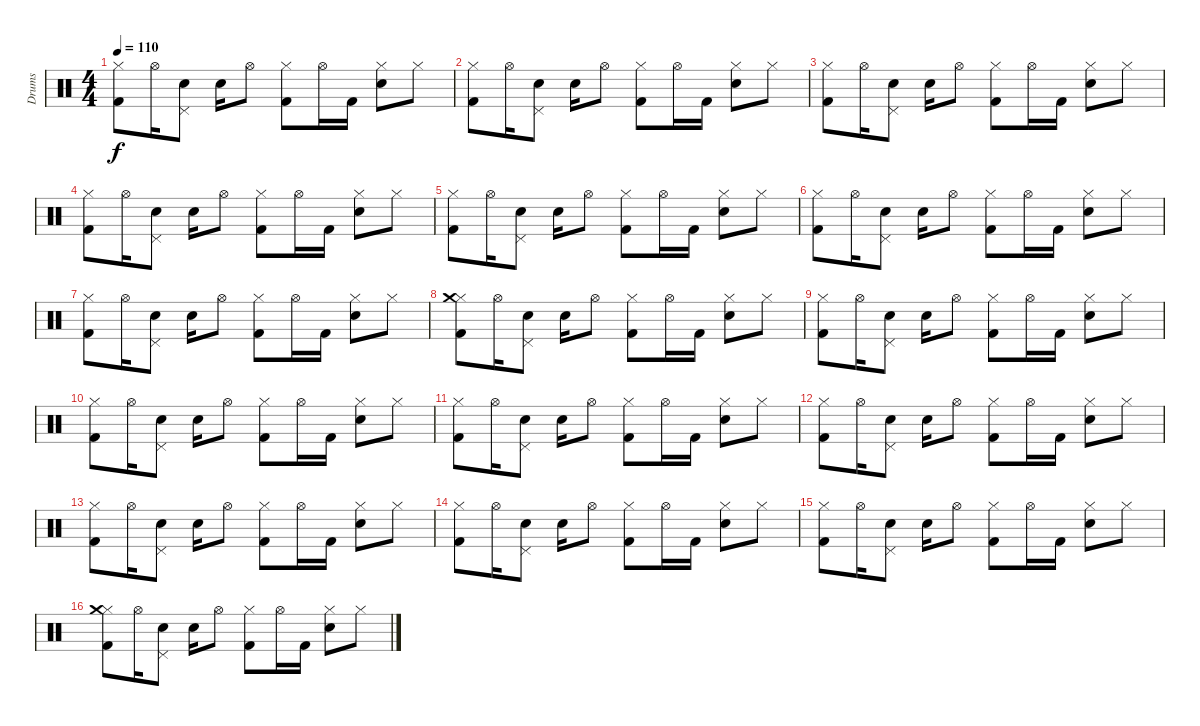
\track ("Drums" "Drums") {instrument percussion}
\staff {score}
\articulation defaults
\ts (4 4)
\tempo 110
\clef neutral
\ks c
("Hi-Hat (closed)" "Kick (hit) 2").8{dy f} "Hi-Hat (open)".16 ("Electric Snare (hit)" "Pedal Hi-Hat (hit)").8 "Electric Snare (hit)".16 "Hi-Hat (open)".8 ("Hi-Hat (closed)" "Kick (hit) 2").8 "Hi-Hat (open)".16 "Kick (hit) 2".16 ("Hi-Hat (closed)" "Electric Snare (hit)").8 "Hi-Hat (closed)".8 |
("Hi-Hat (closed)" "Kick (hit) 2").8 "Hi-Hat (open)".16 ("Electric Snare (hit)" "Pedal Hi-Hat (hit)").8 "Electric Snare (hit)".16 "Hi-Hat (open)".8 ("Hi-Hat (closed)" "Kick (hit) 2").8 "Hi-Hat (open)".16 "Kick (hit) 2".16 ("Hi-Hat (closed)" "Electric Snare (hit)").8 "Hi-Hat (closed)".8 |
("Hi-Hat (closed)" "Kick (hit) 2").8 "Hi-Hat (open)".16 ("Electric Snare (hit)" "Pedal Hi-Hat (hit)").8 "Electric Snare (hit)".16 "Hi-Hat (open)".8 ("Hi-Hat (closed)" "Kick (hit) 2").8 "Hi-Hat (open)".16 "Kick (hit) 2".16 ("Hi-Hat (closed)" "Electric Snare (hit)").8 "Hi-Hat (closed)".8 |
("Hi-Hat (closed)" "Kick (hit) 2").8 "Hi-Hat (open)".16 ("Electric Snare (hit)" "Pedal Hi-Hat (hit)").8 "Electric Snare (hit)".16 "Hi-Hat (open)".8 ("Hi-Hat (closed)" "Kick (hit) 2").8 "Hi-Hat (open)".16 "Kick (hit) 2".16 ("Hi-Hat (closed)" "Electric Snare (hit)").8 "Hi-Hat (closed)".8 |
("Hi-Hat (closed)" "Kick (hit) 2").8 "Hi-Hat (open)".16 ("Electric Snare (hit)" "Pedal Hi-Hat (hit)").8 "Electric Snare (hit)".16 "Hi-Hat (open)".8 ("Hi-Hat (closed)" "Kick (hit) 2").8 "Hi-Hat (open)".16 "Kick (hit) 2".16 ("Hi-Hat (closed)" "Electric Snare (hit)").8 "Hi-Hat (closed)".8 |
("Hi-Hat (closed)" "Kick (hit) 2").8 "Hi-Hat (open)".16 ("Electric Snare (hit)" "Pedal Hi-Hat (hit)").8 "Electric Snare (hit)".16 "Hi-Hat (open)".8 ("Hi-Hat (closed)" "Kick (hit) 2").8 "Hi-Hat (open)".16 "Kick (hit) 2".16 ("Hi-Hat (closed)" "Electric Snare (hit)").8 "Hi-Hat (closed)".8 |
("Hi-Hat (closed)" "Kick (hit) 2").8 "Hi-Hat (open)".16 ("Electric Snare (hit)" "Pedal Hi-Hat (hit)").8 "Electric Snare (hit)".16 "Hi-Hat (open)".8 ("Hi-Hat (closed)" "Kick (hit) 2").8 "Hi-Hat (open)".16 "Kick (hit) 2".16 ("Hi-Hat (closed)" "Electric Snare (hit)").8 "Hi-Hat (closed)".8 |
("Hi-Hat (closed)" "Kick (hit) 2" "Crash medium (hit)").8 "Hi-Hat (open)".16 ("Electric Snare (hit)" "Pedal Hi-Hat (hit)").8 "Electric Snare (hit)".16 "Hi-Hat (open)".8 ("Hi-Hat (closed)" "Kick (hit) 2").8 "Hi-Hat (open)".16 "Kick (hit) 2".16 ("Hi-Hat (closed)" "Electric Snare (hit)").8 "Hi-Hat (closed)".8 |
("Hi-Hat (closed)" "Kick (hit) 2").8 "Hi-Hat (open)".16 ("Electric Snare (hit)" "Pedal Hi-Hat (hit)").8 "Electric Snare (hit)".16 "Hi-Hat (open)".8 ("Hi-Hat (closed)" "Kick (hit) 2").8 "Hi-Hat (open)".16 "Kick (hit) 2".16 ("Hi-Hat (closed)" "Electric Snare (hit)").8 "Hi-Hat (closed)".8 |
("Hi-Hat (closed)" "Kick (hit) 2").8 "Hi-Hat (open)".16 ("Electric Snare (hit)" "Pedal Hi-Hat (hit)").8 "Electric Snare (hit)".16 "Hi-Hat (open)".8 ("Hi-Hat (closed)" "Kick (hit) 2").8 "Hi-Hat (open)".16 "Kick (hit) 2".16 ("Hi-Hat (closed)" "Electric Snare (hit)").8 "Hi-Hat (closed)".8 |
("Hi-Hat (closed)" "Kick (hit) 2").8 "Hi-Hat (open)".16 ("Electric Snare (hit)" "Pedal Hi-Hat (hit)").8 "Electric Snare (hit)".16 "Hi-Hat (open)".8 ("Hi-Hat (closed)" "Kick (hit) 2").8 "Hi-Hat (open)".16 "Kick (hit) 2".16 ("Hi-Hat (closed)" "Electric Snare (hit)").8 "Hi-Hat (closed)".8 |
("Hi-Hat (closed)" "Kick (hit) 2").8 "Hi-Hat (open)".16 ("Electric Snare (hit)" "Pedal Hi-Hat (hit)").8 "Electric Snare (hit)".16 "Hi-Hat (open)".8 ("Hi-Hat (closed)" "Kick (hit) 2").8 "Hi-Hat (open)".16 "Kick (hit) 2".16 ("Hi-Hat (closed)" "Electric Snare (hit)").8 "Hi-Hat (closed)".8 |
("Hi-Hat (closed)" "Kick (hit) 2").8 "Hi-Hat (open)".16 ("Electric Snare (hit)" "Pedal Hi-Hat (hit)").8 "Electric Snare (hit)".16 "Hi-Hat (open)".8 ("Hi-Hat (closed)" "Kick (hit) 2").8 "Hi-Hat (open)".16 "Kick (hit) 2".16 ("Hi-Hat (closed)" "Electric Snare (hit)").8 "Hi-Hat (closed)".8 |
("Hi-Hat (closed)" "Kick (hit) 2").8 "Hi-Hat (open)".16 ("Electric Snare (hit)" "Pedal Hi-Hat (hit)").8 "Electric Snare (hit)".16 "Hi-Hat (open)".8 ("Hi-Hat (closed)" "Kick (hit) 2").8 "Hi-Hat (open)".16 "Kick (hit) 2".16 ("Hi-Hat (closed)" "Electric Snare (hit)").8 "Hi-Hat (closed)".8 |
("Hi-Hat (closed)" "Kick (hit) 2").8 "Hi-Hat (open)".16 ("Electric Snare (hit)" "Pedal Hi-Hat (hit)").8 "Electric Snare (hit)".16 "Hi-Hat (open)".8 ("Hi-Hat (closed)" "Kick (hit) 2").8 "Hi-Hat (open)".16 "Kick (hit) 2".16 ("Hi-Hat (closed)" "Electric Snare (hit)").8 "Hi-Hat (closed)".8 |
("Hi-Hat (closed)" "Kick (hit) 2" "Crash medium (hit)").8 "Hi-Hat (open)".16 ("Electric Snare (hit)" "Pedal Hi-Hat (hit)").8 "Electric Snare (hit)".16 "Hi-Hat (open)".8 ("Hi-Hat (closed)" "Kick (hit) 2").8 "Hi-Hat (open)".16 "Kick (hit) 2".16 ("Hi-Hat (closed)" "Electric Snare (hit)").8 "Hi-Hat (closed)".8
